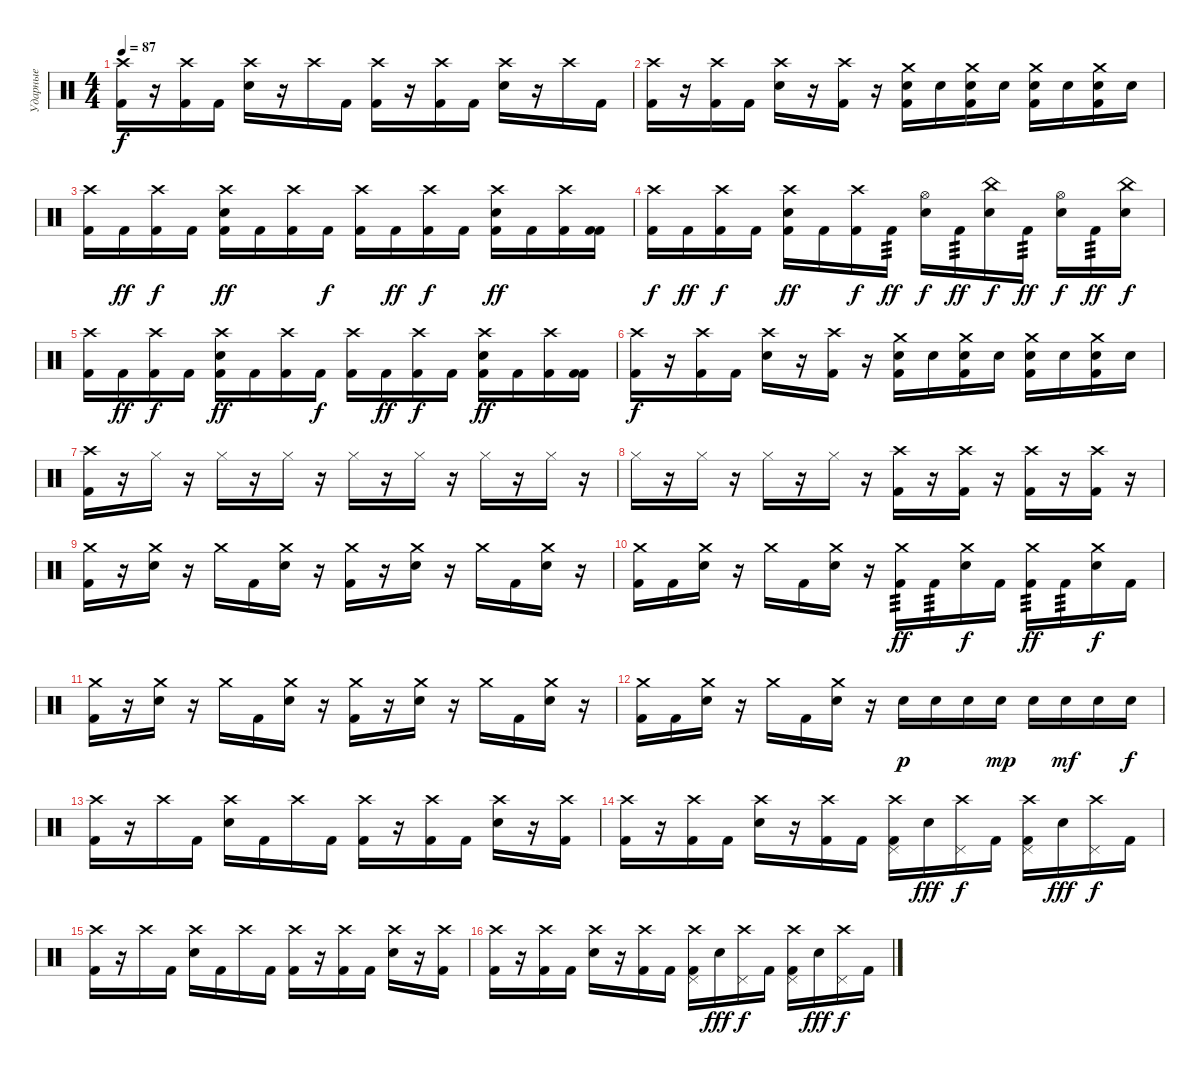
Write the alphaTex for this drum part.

\track ("Ударные" "Ударные") {instrument percussion}
\staff {score}
\articulation defaults
\ts (4 4)
\tempo 87
\clef neutral
\ks c
("Crash high (hit)" "Kick (hit) 2").16{dy f} r.16 ("Crash high (hit)" "Kick (hit) 2").16 "Kick (hit) 2".16 ("Crash high (hit)" "Electric Snare (hit)").16 r.16 "Crash high (hit)".16 "Kick (hit) 2".16 ("Crash high (hit)" "Kick (hit) 2").16 r.16 ("Crash high (hit)" "Kick (hit) 2").16 "Kick (hit) 2".16 ("Crash high (hit)" "Electric Snare (hit)").16 r.16 "Crash high (hit)".16 "Kick (hit) 2".16 |
("Crash high (hit)" "Kick (hit) 2").16 r.16 ("Crash high (hit)" "Kick (hit) 2").16 "Kick (hit) 2".16 ("Crash high (hit)" "Electric Snare (hit)").16 r.16 ("Crash high (hit)" "Kick (hit) 2").16 r.16 ("Crash medium (hit)" "Electric Snare (hit)" "Kick (hit) 2").16 "Electric Snare (hit)".16 ("Crash medium (hit)" "Electric Snare (hit)" "Kick (hit) 2").16 "Electric Snare (hit)".16 ("Crash medium (hit)" "Electric Snare (hit)" "Kick (hit) 2").16 "Electric Snare (hit)".16 ("Crash medium (hit)" "Electric Snare (hit)" "Kick (hit) 2").16 "Electric Snare (hit)".16 |
("Crash high (hit)" "Kick (hit) 2").16 "Kick (hit) 2".16{dy ff} ("Crash high (hit)" "Kick (hit) 2").16{dy f} "Kick (hit) 2".16 ("Crash high (hit)" "Electric Snare (hit)" "Kick (hit) 2").16{dy ff} "Kick (hit) 2".16 ("Crash high (hit)" "Kick (hit) 2").16 "Kick (hit) 2".16{dy f} ("Crash high (hit)" "Kick (hit) 2").16 "Kick (hit) 2".16{dy ff} ("Crash high (hit)" "Kick (hit) 2").16{dy f} "Kick (hit) 2".16 ("Crash high (hit)" "Electric Snare (hit)" "Kick (hit) 2").16{dy ff} "Kick (hit) 2".16 ("Crash high (hit)" "Kick (hit) 2").16 ("Kick (hit) 2" "Kick (hit) 2").16 |
("Crash high (hit)" "Kick (hit) 2").16{dy f} "Kick (hit) 2".16{dy ff} ("Crash high (hit)" "Kick (hit) 2").16{dy f} "Kick (hit) 2".16 ("Crash high (hit)" "Electric Snare (hit)" "Kick (hit) 2").16{dy ff} "Kick (hit) 2".16 ("Crash high (hit)" "Kick (hit) 2").16{dy f} "Kick (hit) 2".16{tp 3 dy ff} ("Hi-Hat (open)" "Electric Snare (hit)").16{dy f} "Kick (hit) 2".16{tp 3 dy ff} ("China (hit)" "Electric Snare (hit)").16{dy f} "Kick (hit) 2".16{tp 3 dy ff} ("Hi-Hat (open)" "Electric Snare (hit)").16{dy f} "Kick (hit) 2".16{tp 3 dy ff} ("China (hit)" "Electric Snare (hit)").16{dy f} |
("Crash high (hit)" "Kick (hit) 2").16 "Kick (hit) 2".16{dy ff} ("Crash high (hit)" "Kick (hit) 2").16{dy f} "Kick (hit) 2".16 ("Crash high (hit)" "Electric Snare (hit)" "Kick (hit) 2").16{dy ff} "Kick (hit) 2".16 ("Crash high (hit)" "Kick (hit) 2").16 "Kick (hit) 2".16{dy f} ("Crash high (hit)" "Kick (hit) 2").16 "Kick (hit) 2".16{dy ff} ("Crash high (hit)" "Kick (hit) 2").16{dy f} "Kick (hit) 2".16 ("Crash high (hit)" "Electric Snare (hit)" "Kick (hit) 2").16{dy ff} "Kick (hit) 2".16 ("Crash high (hit)" "Kick (hit) 2").16 ("Kick (hit) 2" "Kick (hit) 2").16 |
("Crash high (hit)" "Kick (hit) 2").16{dy f} r.16 ("Crash high (hit)" "Kick (hit) 2").16 "Kick (hit) 2".16 ("Crash high (hit)" "Electric Snare (hit)").16 r.16 ("Crash high (hit)" "Kick (hit) 2").16 r.16 ("Crash medium (hit)" "Electric Snare (hit)" "Kick (hit) 2").16 "Electric Snare (hit)".16 ("Crash medium (hit)" "Electric Snare (hit)" "Kick (hit) 2").16 "Electric Snare (hit)".16 ("Crash medium (hit)" "Electric Snare (hit)" "Kick (hit) 2").16 "Electric Snare (hit)".16 ("Crash medium (hit)" "Electric Snare (hit)" "Kick (hit) 2").16 "Electric Snare (hit)".16 |
("Crash high (hit)" "Kick (hit) 2").16 r.16 "Hi-Hat (closed)".16 r.16 "Hi-Hat (closed)".16 r.16 "Hi-Hat (closed)".16 r.16 "Hi-Hat (closed)".16 r.16 "Hi-Hat (closed)".16 r.16 "Hi-Hat (closed)".16 r.16 "Hi-Hat (closed)".16 r.16 |
"Hi-Hat (closed)".16 r.16 "Hi-Hat (closed)".16 r.16 "Hi-Hat (closed)".16 r.16 "Hi-Hat (closed)".16 r.16 ("Crash high (hit)" "Kick (hit) 2").16 r.16 ("Crash high (hit)" "Kick (hit) 2").16 r.16 ("Crash high (hit)" "Kick (hit) 2").16 r.16 ("Crash high (hit)" "Kick (hit) 2").16 r.16 |
("Crash medium (hit)" "Kick (hit) 2").16 r.16 ("Crash medium (hit)" "Electric Snare (hit)").16 r.16 "Crash medium (hit)".16 "Kick (hit) 2".16 ("Crash medium (hit)" "Electric Snare (hit)").16 r.16 ("Crash medium (hit)" "Kick (hit) 2").16 r.16 ("Crash medium (hit)" "Electric Snare (hit)").16 r.16 "Crash medium (hit)".16 "Kick (hit) 2".16 ("Crash medium (hit)" "Electric Snare (hit)").16 r.16 |
("Crash medium (hit)" "Kick (hit) 2").16 "Kick (hit) 2".16 ("Crash medium (hit)" "Electric Snare (hit)").16 r.16 "Crash medium (hit)".16 "Kick (hit) 2".16 ("Crash medium (hit)" "Electric Snare (hit)").16 r.16 ("Crash medium (hit)" "Kick (hit) 2").16{tp 3 dy ff} "Kick (hit) 2".16{tp 3} ("Crash medium (hit)" "Electric Snare (hit)").16{dy f} "Kick (hit) 2".16 ("Crash medium (hit)" "Kick (hit) 2").16{tp 3 dy ff} "Kick (hit) 2".16{tp 3} ("Crash medium (hit)" "Electric Snare (hit)").16{dy f} "Kick (hit) 2".16 |
("Crash medium (hit)" "Kick (hit) 2").16 r.16 ("Crash medium (hit)" "Electric Snare (hit)").16 r.16 "Crash medium (hit)".16 "Kick (hit) 2".16 ("Crash medium (hit)" "Electric Snare (hit)").16 r.16 ("Crash medium (hit)" "Kick (hit) 2").16 r.16 ("Crash medium (hit)" "Electric Snare (hit)").16 r.16 "Crash medium (hit)".16 "Kick (hit) 2".16 ("Crash medium (hit)" "Electric Snare (hit)").16 r.16 |
("Crash medium (hit)" "Kick (hit) 2").16 "Kick (hit) 2".16 ("Crash medium (hit)" "Electric Snare (hit)").16 r.16 "Crash medium (hit)".16 "Kick (hit) 2".16 ("Crash medium (hit)" "Electric Snare (hit)").16 r.16 "Electric Snare (hit)".16{dy p} "Electric Snare (hit)".16 "Electric Snare (hit)".16 "Electric Snare (hit)".16{dy mp} "Electric Snare (hit)".16 "Electric Snare (hit)".16{dy mf} "Electric Snare (hit)".16 "Electric Snare (hit)".16{dy f} |
("Crash high (hit)" "Kick (hit) 2").16 r.16 "Crash high (hit)".16 "Kick (hit) 2".16 ("Crash high (hit)" "Electric Snare (hit)").16 "Kick (hit) 2".16 "Crash high (hit)".16 "Kick (hit) 2".16 ("Crash high (hit)" "Kick (hit) 2").16 r.16 ("Crash high (hit)" "Kick (hit) 2").16 "Kick (hit) 2".16 ("Crash high (hit)" "Electric Snare (hit)").16 r.16 ("Crash high (hit)" "Kick (hit) 2").16 |
("Crash high (hit)" "Kick (hit) 2").16 r.16 ("Crash high (hit)" "Kick (hit) 2").16 "Kick (hit) 2".16 ("Crash high (hit)" "Electric Snare (hit)").16 r.16 ("Crash high (hit)" "Kick (hit) 2").16 "Kick (hit) 2".16 ("Crash high (hit)" "Pedal Hi-Hat (hit)" "Kick (hit) 2").16 "Electric Snare (hit)".16{dy fff} ("Crash high (hit)" "Pedal Hi-Hat (hit)").16{dy f} "Kick (hit) 2".16 ("Crash high (hit)" "Pedal Hi-Hat (hit)" "Kick (hit) 2").16 "Electric Snare (hit)".16{dy fff} ("Crash high (hit)" "Pedal Hi-Hat (hit)").16{dy f} "Kick (hit) 2".16 |
("Crash high (hit)" "Kick (hit) 2").16 r.16 "Crash high (hit)".16 "Kick (hit) 2".16 ("Crash high (hit)" "Electric Snare (hit)").16 "Kick (hit) 2".16 "Crash high (hit)".16 "Kick (hit) 2".16 ("Crash high (hit)" "Kick (hit) 2").16 r.16 ("Crash high (hit)" "Kick (hit) 2").16 "Kick (hit) 2".16 ("Crash high (hit)" "Electric Snare (hit)").16 r.16 ("Crash high (hit)" "Kick (hit) 2").16 |
("Crash high (hit)" "Kick (hit) 2").16 r.16 ("Crash high (hit)" "Kick (hit) 2").16 "Kick (hit) 2".16 ("Crash high (hit)" "Electric Snare (hit)").16 r.16 ("Crash high (hit)" "Kick (hit) 2").16 "Kick (hit) 2".16 ("Crash high (hit)" "Pedal Hi-Hat (hit)" "Kick (hit) 2").16 "Electric Snare (hit)".16{dy fff} ("Crash high (hit)" "Pedal Hi-Hat (hit)").16{dy f} "Kick (hit) 2".16 ("Crash high (hit)" "Pedal Hi-Hat (hit)" "Kick (hit) 2").16 "Electric Snare (hit)".16{dy fff} ("Crash high (hit)" "Pedal Hi-Hat (hit)").16{dy f} "Kick (hit) 2".16
